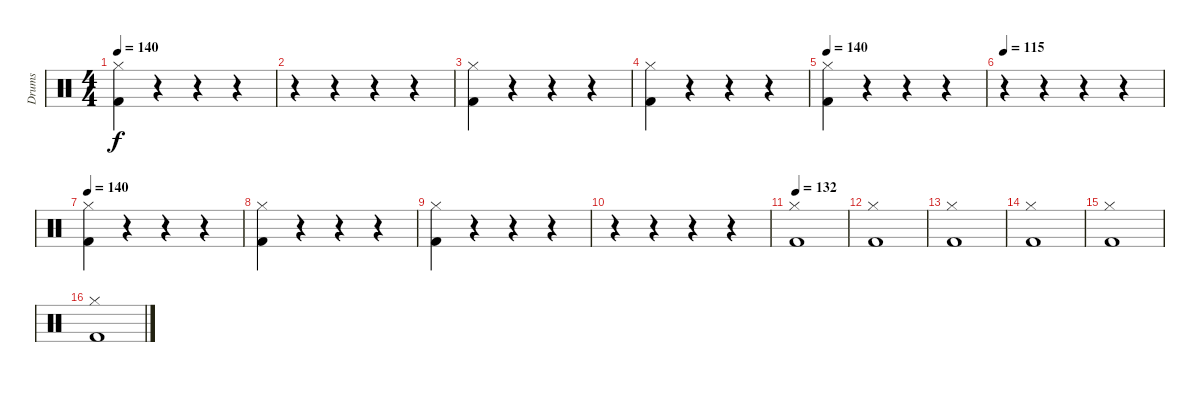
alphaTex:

\track ("Drums" "Drums") {instrument percussion}
\staff {score}
\articulation defaults
\ts (4 4)
\tempo 140
\clef neutral
\ks c
("Kick (hit) 2" "Hi-Hat (closed)").4{dy f} r.4 r.4 r.4 |
r.4 r.4 r.4 r.4 |
("Kick (hit) 2" "Hi-Hat (closed)").4 r.4 r.4 r.4 |
("Kick (hit) 2" "Hi-Hat (closed)").4 r.4 r.4 r.4 |
\tempo 140
("Kick (hit) 2" "Hi-Hat (closed)").4 r.4 r.4 r.4 |
\tempo 115
r.4 r.4 r.4 r.4 |
\tempo 140
("Kick (hit) 2" "Hi-Hat (closed)").4 r.4 r.4 r.4 |
("Kick (hit) 2" "Hi-Hat (closed)").4 r.4 r.4 r.4 |
("Kick (hit) 2" "Hi-Hat (closed)").4 r.4 r.4 r.4 |
r.4 r.4 r.4 r.4 |
\tempo 132
("Kick (hit) 2" "Hi-Hat (closed)").1 |
("Kick (hit) 2" "Hi-Hat (closed)").1 |
("Kick (hit) 2" "Hi-Hat (closed)").1 |
("Kick (hit) 2" "Hi-Hat (closed)").1 |
("Kick (hit) 2" "Hi-Hat (closed)").1 |
("Kick (hit) 2" "Hi-Hat (closed)").1
